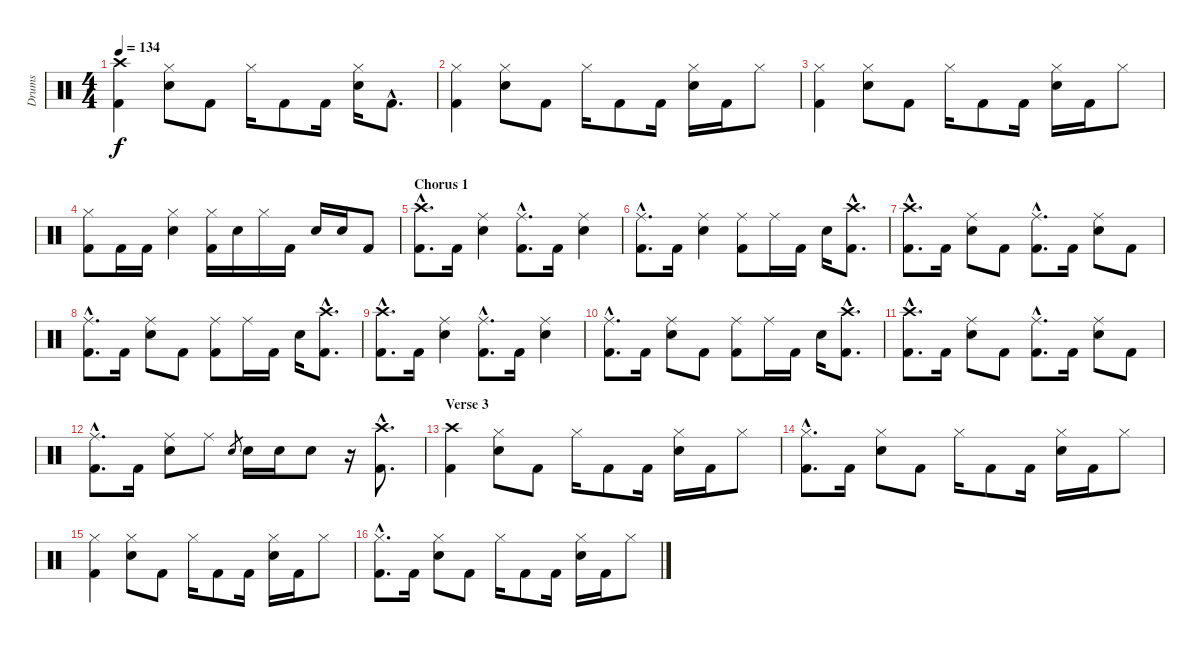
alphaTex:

\track ("Drums" "Drums") {instrument percussion}
\staff {score}
\articulation defaults
\ts (4 4)
\tempo 134
\clef neutral
\ks c
("Crash high (hit)" "Kick (hit) 2").4{dy f} ("Hi-Hat (closed)" "Electric Snare (hit)").8 "Kick (hit) 2".8 "Hi-Hat (closed)".16 "Kick (hit) 2".8 "Kick (hit) 2".16 ("Hi-Hat (closed)" "Electric Snare (hit)").16 "Kick (hit) 2"{hac}.8{d} |
("Hi-Hat (closed)" "Kick (hit) 2").4 ("Hi-Hat (closed)" "Electric Snare (hit)").8 "Kick (hit) 2".8 "Hi-Hat (closed)".16 "Kick (hit) 2".8 "Kick (hit) 2".16 ("Hi-Hat (closed)" "Electric Snare (hit)").16 "Kick (hit) 2".16 "Hi-Hat (closed)".8 |
("Hi-Hat (closed)" "Kick (hit) 2").4 ("Hi-Hat (closed)" "Electric Snare (hit)").8 "Kick (hit) 2".8 "Hi-Hat (closed)".16 "Kick (hit) 2".8 "Kick (hit) 2".16 ("Hi-Hat (closed)" "Electric Snare (hit)").16 "Kick (hit) 2".16 "Hi-Hat (closed)".8 |
("Hi-Hat (closed)" "Kick (hit) 2").8 "Kick (hit) 2".16 "Kick (hit) 2".16 ("Hi-Hat (closed)" "Electric Snare (hit)").4 ("Hi-Hat (closed)" "Kick (hit) 2").16 "Electric Snare (hit)".16 "Hi-Hat (closed)".16 "Kick (hit) 2".16 "Electric Snare (hit)".16 "Electric Snare (hit)".16 "Kick (hit) 2".8 |
\section ("" "Chorus 1")
("Crash high (hit)"{hac} "Kick (hit) 2"{hac}).8{d} "Kick (hit) 2".16 ("Ride (middle)" "Electric Snare (hit)").4 ("Ride (middle)"{hac} "Kick (hit) 2"{hac}).8{d} "Kick (hit) 2".16 ("Ride (middle)" "Electric Snare (hit)").4 |
("Ride (middle)"{hac} "Kick (hit) 2"{hac}).8{d} "Kick (hit) 2".16 ("Ride (middle)" "Electric Snare (hit)").4 ("Ride (middle)" "Kick (hit) 2").8 "Ride (middle)".16 "Kick (hit) 2".16 "Electric Snare (hit)".16 ("Crash high (hit)"{hac} "Kick (hit) 2"{hac}).8{d} |
("Crash high (hit)"{hac} "Kick (hit) 2"{hac}).8{d} "Kick (hit) 2".16 ("Ride (middle)" "Electric Snare (hit)").8 "Kick (hit) 2".8 ("Ride (middle)"{hac} "Kick (hit) 2"{hac}).8{d} "Kick (hit) 2".16 ("Ride (middle)" "Electric Snare (hit)").8 "Kick (hit) 2".8 |
("Ride (middle)"{hac} "Kick (hit) 2"{hac}).8{d} "Kick (hit) 2".16 ("Ride (middle)" "Electric Snare (hit)").8 "Kick (hit) 2".8 ("Ride (middle)" "Kick (hit) 2").8 "Ride (middle)".16 "Kick (hit) 2".16 "Electric Snare (hit)".16 ("Crash high (hit)"{hac} "Kick (hit) 2"{hac}).8{d} |
("Crash high (hit)"{hac} "Kick (hit) 2"{hac}).8{d} "Kick (hit) 2".16 ("Ride (middle)" "Electric Snare (hit)").4 ("Ride (middle)"{hac} "Kick (hit) 2"{hac}).8{d} "Kick (hit) 2".16 ("Ride (middle)" "Electric Snare (hit)").4 |
("Ride (middle)"{hac} "Kick (hit) 2"{hac}).8{d} "Kick (hit) 2".16 ("Ride (middle)" "Electric Snare (hit)").8 "Kick (hit) 2".8 ("Ride (middle)" "Kick (hit) 2").8 "Ride (middle)".16 "Kick (hit) 2".16 "Electric Snare (hit)".16 ("Crash high (hit)"{hac} "Kick (hit) 2"{hac}).8{d} |
("Crash high (hit)"{hac} "Kick (hit) 2"{hac}).8{d} "Kick (hit) 2".16 ("Ride (middle)" "Electric Snare (hit)").8 "Kick (hit) 2".8 ("Ride (middle)"{hac} "Kick (hit) 2"{hac}).8{d} "Kick (hit) 2".16 ("Ride (middle)" "Electric Snare (hit)").8 "Kick (hit) 2".8 |
("Ride (middle)"{hac} "Kick (hit) 2"{hac}).8{d} "Kick (hit) 2".16 ("Ride (middle)" "Electric Snare (hit)").8 "Ride (middle)".8 "Electric Snare (hit)".8{gr} "Electric Snare (hit)".16 "Electric Snare (hit)".16 "Electric Snare (hit)".8 r.16 ("Crash high (hit)"{hac} "Kick (hit) 2"{hac}).8{d} |
\section ("" "Verse 3")
("Crash high (hit)" "Kick (hit) 2").4 ("Hi-Hat (closed)" "Electric Snare (hit)").8 "Kick (hit) 2".8 "Hi-Hat (closed)".16 "Kick (hit) 2".8 "Kick (hit) 2".16 ("Hi-Hat (closed)" "Electric Snare (hit)").16 "Kick (hit) 2".16 "Hi-Hat (closed)".8 |
("Hi-Hat (closed)"{hac} "Kick (hit) 2"{hac}).8{d} "Kick (hit) 2".16 ("Hi-Hat (closed)" "Electric Snare (hit)").8 "Kick (hit) 2".8 "Hi-Hat (closed)".16 "Kick (hit) 2".8 "Kick (hit) 2".16 ("Hi-Hat (closed)" "Electric Snare (hit)").16 "Kick (hit) 2".16 "Hi-Hat (closed)".8 |
("Hi-Hat (closed)" "Kick (hit) 2").4 ("Hi-Hat (closed)" "Electric Snare (hit)").8 "Kick (hit) 2".8 "Hi-Hat (closed)".16 "Kick (hit) 2".8 "Kick (hit) 2".16 ("Hi-Hat (closed)" "Electric Snare (hit)").16 "Kick (hit) 2".16 "Hi-Hat (closed)".8 |
("Hi-Hat (closed)"{hac} "Kick (hit) 2"{hac}).8{d} "Kick (hit) 2".16 ("Hi-Hat (closed)" "Electric Snare (hit)").8 "Kick (hit) 2".8 "Hi-Hat (closed)".16 "Kick (hit) 2".8 "Kick (hit) 2".16 ("Hi-Hat (closed)" "Electric Snare (hit)").16 "Kick (hit) 2".16 "Hi-Hat (closed)".8
